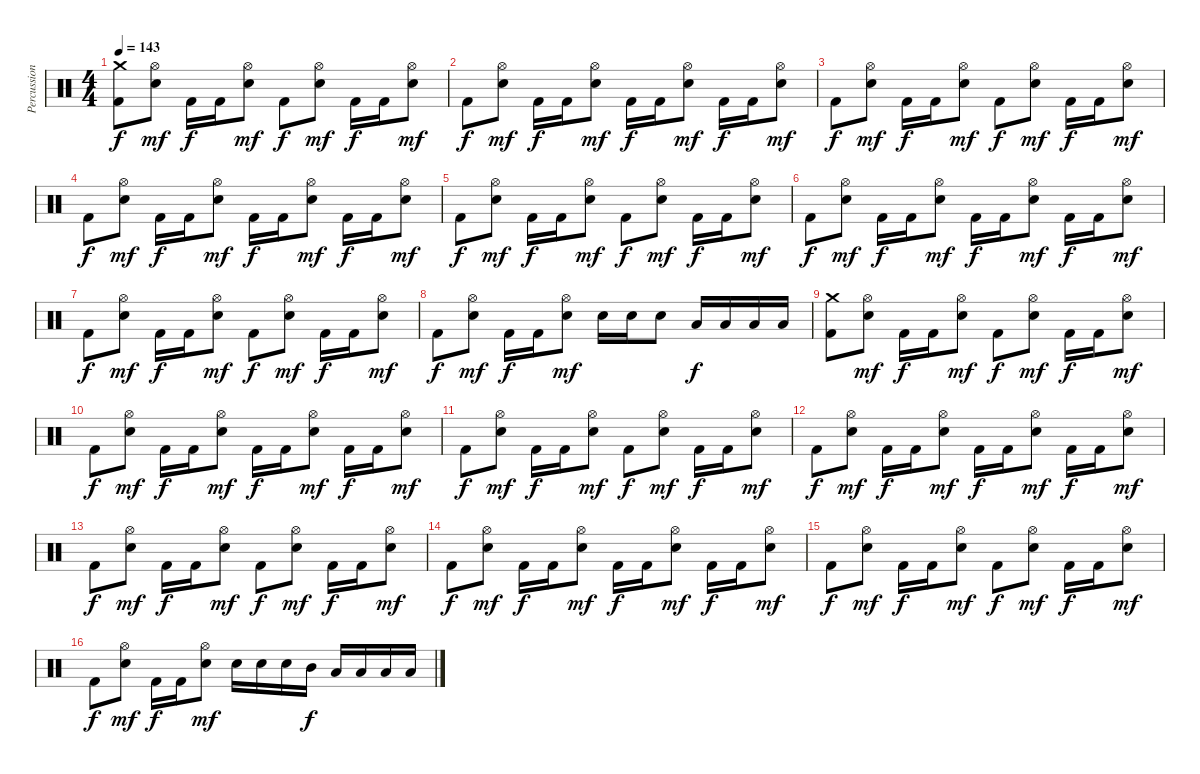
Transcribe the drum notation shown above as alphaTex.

\track ("Percussion" "Percussion") {instrument percussion}
\staff {score}
\articulation defaults
\ts (4 4)
\tempo 143
\clef neutral
\ks c
("Crash medium (hit)" "Kick (hit) 2").8{dy f} ("Hi-Hat (open)" "Electric Snare (hit)").8{dy mf} "Kick (hit) 2".16{dy f} "Kick (hit) 2".16 ("Hi-Hat (open)" "Electric Snare (hit)").8{dy mf} "Kick (hit) 2".8{dy f} ("Hi-Hat (open)" "Electric Snare (hit)").8{dy mf} "Kick (hit) 2".16{dy f} "Kick (hit) 2".16 ("Hi-Hat (open)" "Electric Snare (hit)").8{dy mf} |
"Kick (hit) 2".8{dy f} ("Hi-Hat (open)" "Electric Snare (hit)").8{dy mf} "Kick (hit) 2".16{dy f} "Kick (hit) 2".16 ("Hi-Hat (open)" "Electric Snare (hit)").8{dy mf} "Kick (hit) 2".16{dy f} "Kick (hit) 2".16 ("Hi-Hat (open)" "Electric Snare (hit)").8{dy mf} "Kick (hit) 2".16{dy f} "Kick (hit) 2".16 ("Hi-Hat (open)" "Electric Snare (hit)").8{dy mf} |
"Kick (hit) 2".8{dy f} ("Hi-Hat (open)" "Electric Snare (hit)").8{dy mf} "Kick (hit) 2".16{dy f} "Kick (hit) 2".16 ("Hi-Hat (open)" "Electric Snare (hit)").8{dy mf} "Kick (hit) 2".8{dy f} ("Hi-Hat (open)" "Electric Snare (hit)").8{dy mf} "Kick (hit) 2".16{dy f} "Kick (hit) 2".16 ("Hi-Hat (open)" "Electric Snare (hit)").8{dy mf} |
"Kick (hit) 2".8{dy f} ("Hi-Hat (open)" "Electric Snare (hit)").8{dy mf} "Kick (hit) 2".16{dy f} "Kick (hit) 2".16 ("Hi-Hat (open)" "Electric Snare (hit)").8{dy mf} "Kick (hit) 2".16{dy f} "Kick (hit) 2".16 ("Hi-Hat (open)" "Electric Snare (hit)").8{dy mf} "Kick (hit) 2".16{dy f} "Kick (hit) 2".16 ("Hi-Hat (open)" "Electric Snare (hit)").8{dy mf} |
"Kick (hit) 2".8{dy f} ("Hi-Hat (open)" "Electric Snare (hit)").8{dy mf} "Kick (hit) 2".16{dy f} "Kick (hit) 2".16 ("Hi-Hat (open)" "Electric Snare (hit)").8{dy mf} "Kick (hit) 2".8{dy f} ("Hi-Hat (open)" "Electric Snare (hit)").8{dy mf} "Kick (hit) 2".16{dy f} "Kick (hit) 2".16 ("Hi-Hat (open)" "Electric Snare (hit)").8{dy mf} |
"Kick (hit) 2".8{dy f} ("Hi-Hat (open)" "Electric Snare (hit)").8{dy mf} "Kick (hit) 2".16{dy f} "Kick (hit) 2".16 ("Hi-Hat (open)" "Electric Snare (hit)").8{dy mf} "Kick (hit) 2".16{dy f} "Kick (hit) 2".16 ("Hi-Hat (open)" "Electric Snare (hit)").8{dy mf} "Kick (hit) 2".16{dy f} "Kick (hit) 2".16 ("Hi-Hat (open)" "Electric Snare (hit)").8{dy mf} |
"Kick (hit) 2".8{dy f} ("Hi-Hat (open)" "Electric Snare (hit)").8{dy mf} "Kick (hit) 2".16{dy f} "Kick (hit) 2".16 ("Hi-Hat (open)" "Electric Snare (hit)").8{dy mf} "Kick (hit) 2".8{dy f} ("Hi-Hat (open)" "Electric Snare (hit)").8{dy mf} "Kick (hit) 2".16{dy f} "Kick (hit) 2".16 ("Hi-Hat (open)" "Electric Snare (hit)").8{dy mf} |
"Kick (hit) 2".8{dy f} ("Hi-Hat (open)" "Electric Snare (hit)").8{dy mf} "Kick (hit) 2".16{dy f} "Kick (hit) 2".16 ("Hi-Hat (open)" "Electric Snare (hit)").8{dy mf} "Electric Snare (hit)".16 "Electric Snare (hit)".16 "Electric Snare (hit)".8 "Low Tom (hit)".16{dy f} "Low Tom (hit)".16 "Low Tom (hit)".16 "Low Tom (hit)".16 |
("Crash medium (hit)" "Kick (hit) 2").8 ("Hi-Hat (open)" "Electric Snare (hit)").8{dy mf} "Kick (hit) 2".16{dy f} "Kick (hit) 2".16 ("Hi-Hat (open)" "Electric Snare (hit)").8{dy mf} "Kick (hit) 2".8{dy f} ("Hi-Hat (open)" "Electric Snare (hit)").8{dy mf} "Kick (hit) 2".16{dy f} "Kick (hit) 2".16 ("Hi-Hat (open)" "Electric Snare (hit)").8{dy mf} |
"Kick (hit) 2".8{dy f} ("Hi-Hat (open)" "Electric Snare (hit)").8{dy mf} "Kick (hit) 2".16{dy f} "Kick (hit) 2".16 ("Hi-Hat (open)" "Electric Snare (hit)").8{dy mf} "Kick (hit) 2".16{dy f} "Kick (hit) 2".16 ("Hi-Hat (open)" "Electric Snare (hit)").8{dy mf} "Kick (hit) 2".16{dy f} "Kick (hit) 2".16 ("Hi-Hat (open)" "Electric Snare (hit)").8{dy mf} |
"Kick (hit) 2".8{dy f} ("Hi-Hat (open)" "Electric Snare (hit)").8{dy mf} "Kick (hit) 2".16{dy f} "Kick (hit) 2".16 ("Hi-Hat (open)" "Electric Snare (hit)").8{dy mf} "Kick (hit) 2".8{dy f} ("Hi-Hat (open)" "Electric Snare (hit)").8{dy mf} "Kick (hit) 2".16{dy f} "Kick (hit) 2".16 ("Hi-Hat (open)" "Electric Snare (hit)").8{dy mf} |
"Kick (hit) 2".8{dy f} ("Hi-Hat (open)" "Electric Snare (hit)").8{dy mf} "Kick (hit) 2".16{dy f} "Kick (hit) 2".16 ("Hi-Hat (open)" "Electric Snare (hit)").8{dy mf} "Kick (hit) 2".16{dy f} "Kick (hit) 2".16 ("Hi-Hat (open)" "Electric Snare (hit)").8{dy mf} "Kick (hit) 2".16{dy f} "Kick (hit) 2".16 ("Hi-Hat (open)" "Electric Snare (hit)").8{dy mf} |
"Kick (hit) 2".8{dy f} ("Hi-Hat (open)" "Electric Snare (hit)").8{dy mf} "Kick (hit) 2".16{dy f} "Kick (hit) 2".16 ("Hi-Hat (open)" "Electric Snare (hit)").8{dy mf} "Kick (hit) 2".8{dy f} ("Hi-Hat (open)" "Electric Snare (hit)").8{dy mf} "Kick (hit) 2".16{dy f} "Kick (hit) 2".16 ("Hi-Hat (open)" "Electric Snare (hit)").8{dy mf} |
"Kick (hit) 2".8{dy f} ("Hi-Hat (open)" "Electric Snare (hit)").8{dy mf} "Kick (hit) 2".16{dy f} "Kick (hit) 2".16 ("Hi-Hat (open)" "Electric Snare (hit)").8{dy mf} "Kick (hit) 2".16{dy f} "Kick (hit) 2".16 ("Hi-Hat (open)" "Electric Snare (hit)").8{dy mf} "Kick (hit) 2".16{dy f} "Kick (hit) 2".16 ("Hi-Hat (open)" "Electric Snare (hit)").8{dy mf} |
"Kick (hit) 2".8{dy f} ("Hi-Hat (open)" "Electric Snare (hit)").8{dy mf} "Kick (hit) 2".16{dy f} "Kick (hit) 2".16 ("Hi-Hat (open)" "Electric Snare (hit)").8{dy mf} "Kick (hit) 2".8{dy f} ("Hi-Hat (open)" "Electric Snare (hit)").8{dy mf} "Kick (hit) 2".16{dy f} "Kick (hit) 2".16 ("Hi-Hat (open)" "Electric Snare (hit)").8{dy mf} |
"Kick (hit) 2".8{dy f} ("Hi-Hat (open)" "Electric Snare (hit)").8{dy mf} "Kick (hit) 2".16{dy f} "Kick (hit) 2".16 ("Hi-Hat (open)" "Electric Snare (hit)").8{dy mf} "Electric Snare (hit)".16 "Electric Snare (hit)".16 "Electric Snare (hit)".16 "Mid Tom (hit)".16{dy f} "Low Tom (hit)".16 "Low Tom (hit)".16 "Low Tom (hit)".16 "Low Tom (hit)".16
